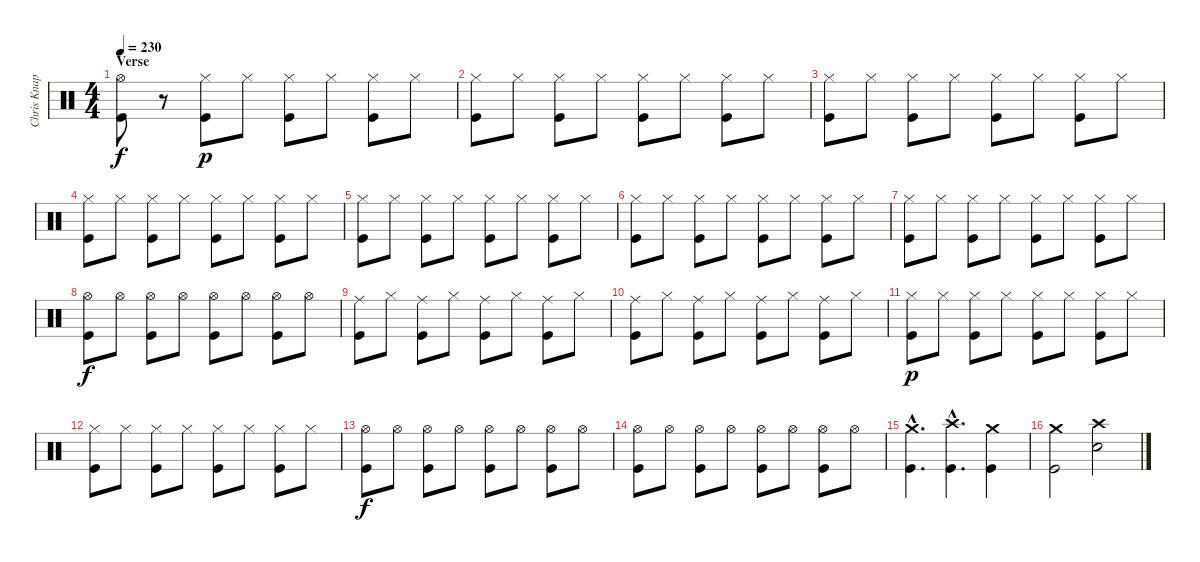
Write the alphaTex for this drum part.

\track ("Chris Knapp" "Chris Knap") {instrument percussion}
\staff {score}
\articulation defaults
\ts (4 4)
\section ("" "Verse")
\tempo 230
\clef neutral
\ks c
("Hi-Hat (open)" "Kick (hit)").8{dy f} r.8 ("Hi-Hat (closed)" "Kick (hit)").8{dy p} "Hi-Hat (closed)".8 ("Hi-Hat (closed)" "Kick (hit)").8 "Hi-Hat (closed)".8 ("Hi-Hat (closed)" "Kick (hit)").8 "Hi-Hat (closed)".8 |
("Hi-Hat (closed)" "Kick (hit)").8 "Hi-Hat (closed)".8 ("Hi-Hat (closed)" "Kick (hit)").8 "Hi-Hat (closed)".8 ("Hi-Hat (closed)" "Kick (hit)").8 "Hi-Hat (closed)".8 ("Hi-Hat (closed)" "Kick (hit)").8 "Hi-Hat (closed)".8 |
("Hi-Hat (closed)" "Kick (hit)").8 "Hi-Hat (closed)".8 ("Hi-Hat (closed)" "Kick (hit)").8 "Hi-Hat (closed)".8 ("Hi-Hat (closed)" "Kick (hit)").8 "Hi-Hat (closed)".8 ("Hi-Hat (closed)" "Kick (hit)").8 "Hi-Hat (closed)".8 |
("Hi-Hat (closed)" "Kick (hit)").8 "Hi-Hat (closed)".8 ("Hi-Hat (closed)" "Kick (hit)").8 "Hi-Hat (closed)".8 ("Hi-Hat (closed)" "Kick (hit)").8 "Hi-Hat (closed)".8 ("Hi-Hat (closed)" "Kick (hit)").8 "Hi-Hat (closed)".8 |
("Hi-Hat (closed)" "Kick (hit)").8 "Hi-Hat (closed)".8 ("Hi-Hat (closed)" "Kick (hit)").8 "Hi-Hat (closed)".8 ("Hi-Hat (closed)" "Kick (hit)").8 "Hi-Hat (closed)".8 ("Hi-Hat (closed)" "Kick (hit)").8 "Hi-Hat (closed)".8 |
("Hi-Hat (closed)" "Kick (hit)").8 "Hi-Hat (closed)".8 ("Hi-Hat (closed)" "Kick (hit)").8 "Hi-Hat (closed)".8 ("Hi-Hat (closed)" "Kick (hit)").8 "Hi-Hat (closed)".8 ("Hi-Hat (closed)" "Kick (hit)").8 "Hi-Hat (closed)".8 |
("Hi-Hat (closed)" "Kick (hit)").8 "Hi-Hat (closed)".8 ("Hi-Hat (closed)" "Kick (hit)").8 "Hi-Hat (closed)".8 ("Hi-Hat (closed)" "Kick (hit)").8 "Hi-Hat (closed)".8 ("Hi-Hat (closed)" "Kick (hit)").8 "Hi-Hat (closed)".8 |
("Hi-Hat (open)" "Kick (hit)").8{dy f} "Hi-Hat (open)".8 ("Hi-Hat (open)" "Kick (hit)").8 "Hi-Hat (open)".8 ("Hi-Hat (open)" "Kick (hit)").8 "Hi-Hat (open)".8 ("Hi-Hat (open)" "Kick (hit)").8 "Hi-Hat (open)".8 |
("Ride (middle)" "Kick (hit)").8 "Hi-Hat (closed)".8 ("Ride (middle)" "Kick (hit)").8 "Hi-Hat (closed)".8 ("Ride (middle)" "Kick (hit)").8 "Hi-Hat (closed)".8 ("Ride (middle)" "Kick (hit)").8 "Hi-Hat (closed)".8 |
("Ride (middle)" "Kick (hit)").8 "Hi-Hat (closed)".8 ("Ride (middle)" "Kick (hit)").8 "Hi-Hat (closed)".8 ("Ride (middle)" "Kick (hit)").8 "Hi-Hat (closed)".8 ("Ride (middle)" "Kick (hit)").8 "Hi-Hat (closed)".8 |
("Hi-Hat (closed)" "Kick (hit)").8{dy p} "Hi-Hat (closed)".8 ("Hi-Hat (closed)" "Kick (hit)").8 "Hi-Hat (closed)".8 ("Hi-Hat (closed)" "Kick (hit)").8 "Hi-Hat (closed)".8 ("Hi-Hat (closed)" "Kick (hit)").8 "Hi-Hat (closed)".8 |
("Hi-Hat (closed)" "Kick (hit)").8 "Hi-Hat (closed)".8 ("Hi-Hat (closed)" "Kick (hit)").8 "Hi-Hat (closed)".8 ("Hi-Hat (closed)" "Kick (hit)").8 "Hi-Hat (closed)".8 ("Hi-Hat (closed)" "Kick (hit)").8 "Hi-Hat (closed)".8 |
("Hi-Hat (open)" "Kick (hit)").8{dy f} "Hi-Hat (open)".8 ("Hi-Hat (open)" "Kick (hit)").8 "Hi-Hat (open)".8 ("Hi-Hat (open)" "Kick (hit)").8 "Hi-Hat (open)".8 ("Hi-Hat (open)" "Kick (hit)").8 "Hi-Hat (open)".8 |
("Hi-Hat (open)" "Kick (hit)").8 "Hi-Hat (open)".8 ("Hi-Hat (open)" "Kick (hit)").8 "Hi-Hat (open)".8 ("Hi-Hat (open)" "Kick (hit)").8 "Hi-Hat (open)".8 ("Hi-Hat (open)" "Kick (hit)").8 "Hi-Hat (open)".8 |
("Crash medium (hit)"{hac} "Kick (hit)"{hac}).4{d} ("Crash high (hit)"{hac} "Kick (hit)"{hac}).4{d} ("Crash medium (hit)" "Kick (hit)").4 |
("Crash medium (hit)" "Kick (hit)").2 ("Crash high (hit)" "Electric Snare (hit)").2
